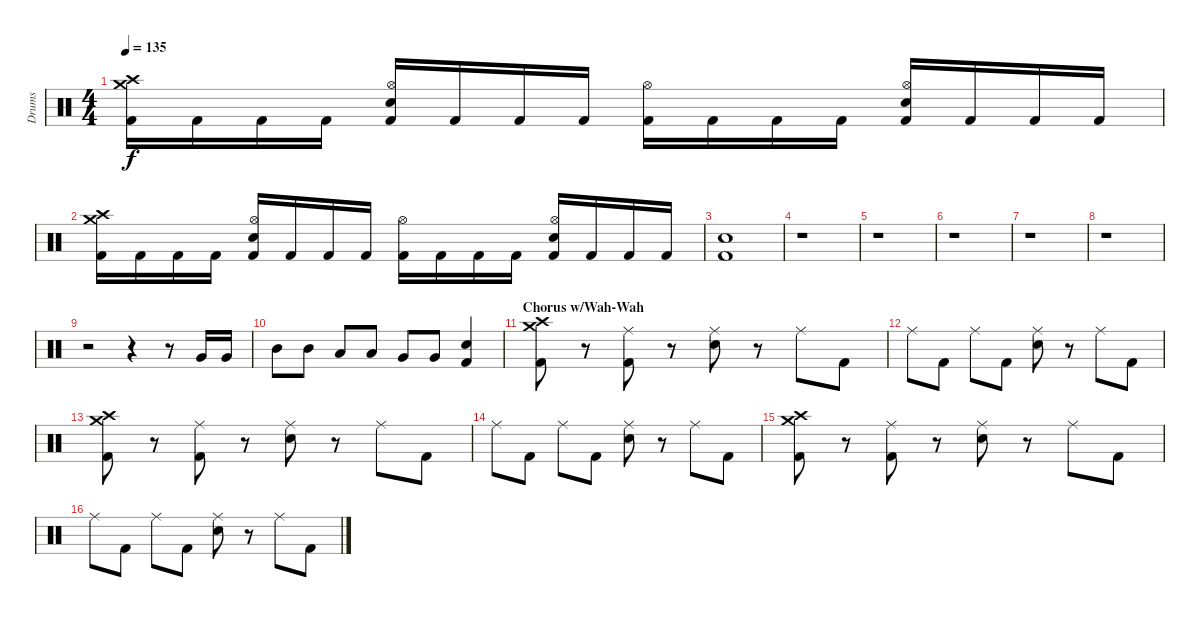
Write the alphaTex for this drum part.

\track ("Drums" "Drums") {instrument percussion}
\staff {score}
\articulation defaults
\ts (4 4)
\tempo 135
\clef neutral
\ks c
("Crash medium (hit)" "Crash high (hit)" "Kick (hit) 2").16{dy f} "Kick (hit) 2".16 "Kick (hit) 2".16 "Kick (hit) 2".16 ("Hi-Hat (open)" "Snare (hit) 2" "Kick (hit) 2").16 "Kick (hit) 2".16 "Kick (hit) 2".16 "Kick (hit) 2".16 ("Hi-Hat (open)" "Kick (hit) 2").16 "Kick (hit) 2".16 "Kick (hit) 2".16 "Kick (hit) 2".16 ("Hi-Hat (open)" "Snare (hit) 2" "Kick (hit) 2").16 "Kick (hit) 2".16 "Kick (hit) 2".16 "Kick (hit) 2".16 |
("Crash medium (hit)" "Crash high (hit)" "Kick (hit) 2").16 "Kick (hit) 2".16 "Kick (hit) 2".16 "Kick (hit) 2".16 ("Hi-Hat (open)" "Snare (hit) 2" "Kick (hit) 2").16 "Kick (hit) 2".16 "Kick (hit) 2".16 "Kick (hit) 2".16 ("Hi-Hat (open)" "Kick (hit) 2").16 "Kick (hit) 2".16 "Kick (hit) 2".16 "Kick (hit) 2".16 ("Hi-Hat (open)" "Snare (hit) 2" "Kick (hit) 2").16 "Kick (hit) 2".16 "Kick (hit) 2".16 "Kick (hit) 2".16 |
("Snare (hit) 2" "Kick (hit) 2").1 |
r.1 |
r.1 |
r.1 |
r.1 |
r.1 |
r.2 r.4 r.8 "Very Low Tom (hit)".16 "Very Low Tom (hit)".16 |
"Mid Tom (hit)".8 "Mid Tom (hit)".8 "Low Tom (hit)".8 "Low Tom (hit)".8 "Very Low Tom (hit)".8 "Very Low Tom (hit)".8 ("Snare (hit) 2" "Kick (hit) 2").4 |
\section ("" "Chorus w/Wah-Wah")
("Crash medium (hit)" "Crash high (hit)" "Kick (hit) 2").8 r.8 ("Ride (middle)" "Kick (hit) 2").8 r.8 ("Ride (middle)" "Snare (hit) 2").8 r.8 "Ride (middle)".8 "Kick (hit) 2".8 |
"Ride (middle)".8 "Kick (hit) 2".8 "Ride (middle)".8 "Kick (hit) 2".8 ("Ride (middle)" "Snare (hit) 2").8 r.8 "Ride (middle)".8 "Kick (hit) 2".8 |
("Crash medium (hit)" "Crash high (hit)" "Kick (hit) 2").8 r.8 ("Ride (middle)" "Kick (hit) 2").8 r.8 ("Ride (middle)" "Snare (hit) 2").8 r.8 "Ride (middle)".8 "Kick (hit) 2".8 |
"Ride (middle)".8 "Kick (hit) 2".8 "Ride (middle)".8 "Kick (hit) 2".8 ("Ride (middle)" "Snare (hit) 2").8 r.8 "Ride (middle)".8 "Kick (hit) 2".8 |
("Crash medium (hit)" "Crash high (hit)" "Kick (hit) 2").8 r.8 ("Ride (middle)" "Kick (hit) 2").8 r.8 ("Ride (middle)" "Snare (hit) 2").8 r.8 "Ride (middle)".8 "Kick (hit) 2".8 |
"Ride (middle)".8 "Kick (hit) 2".8 "Ride (middle)".8 "Kick (hit) 2".8 ("Ride (middle)" "Snare (hit) 2").8 r.8 "Ride (middle)".8 "Kick (hit) 2".8
